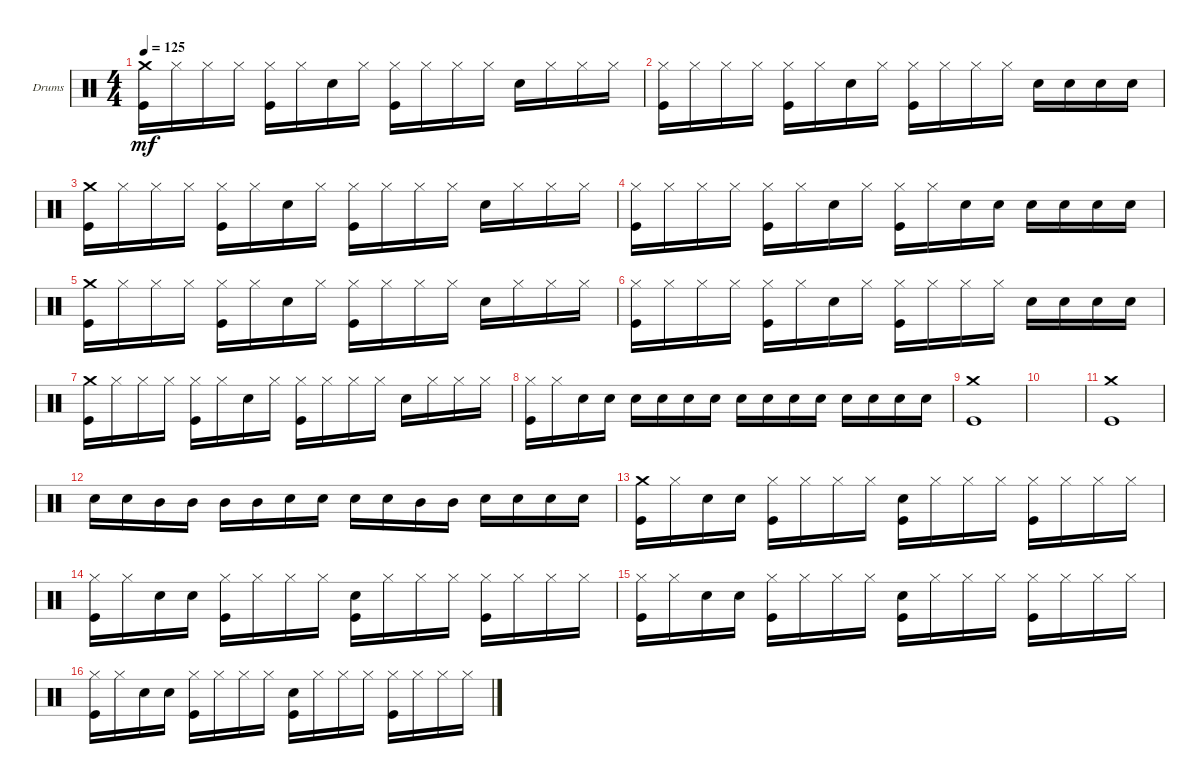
\defaultSystemsLayout 4
\bracketExtendMode groupsimilarinstruments
\firstSystemTrackNameOrientation horizontal
\otherSystemsTrackNameOrientation horizontal
\track ("Drumkit" "Drums") {instrument percussion}
\staff {score}
\articulation defaults
\ts (4 4)
\tempo 125
\clef neutral
\scale
0.333333
\ks c
("Kick (hit)" "Crash medium (hit)").16{dy mf} "Hi-Hat (closed)".16 "Hi-Hat (closed)".16 "Hi-Hat (closed)".16 ("Kick (hit)" "Hi-Hat (closed)").16 "Hi-Hat (closed)".16 "Snare (hit) 2".16 "Hi-Hat (closed)".16 ("Hi-Hat (closed)" "Kick (hit)").16 "Hi-Hat (closed)".16 "Hi-Hat (closed)".16 "Hi-Hat (closed)".16 "Snare (hit) 2".16 "Hi-Hat (closed)".16 "Hi-Hat (closed)".16 "Hi-Hat (closed)".16 |
\scale
0.333333 ("Kick (hit)" "Hi-Hat (closed)").16 "Hi-Hat (closed)".16 "Hi-Hat (closed)".16 "Hi-Hat (closed)".16 ("Kick (hit)" "Hi-Hat (closed)").16 "Hi-Hat (closed)".16 "Snare (hit) 2".16 "Hi-Hat (closed)".16 ("Hi-Hat (closed)" "Kick (hit)").16 "Hi-Hat (closed)".16 "Hi-Hat (closed)".16 "Hi-Hat (closed)".16 "Snare (hit) 2".16 "Snare (hit) 2".16 "Snare (hit) 2".16 "Snare (hit) 2".16 |
\scale
0.333333 ("Kick (hit)" "Crash medium (hit)").16 "Hi-Hat (closed)".16 "Hi-Hat (closed)".16 "Hi-Hat (closed)".16 ("Kick (hit)" "Hi-Hat (closed)").16 "Hi-Hat (closed)".16 "Snare (hit) 2".16 "Hi-Hat (closed)".16 ("Hi-Hat (closed)" "Kick (hit)").16 "Hi-Hat (closed)".16 "Hi-Hat (closed)".16 "Hi-Hat (closed)".16 "Snare (hit) 2".16 "Hi-Hat (closed)".16 "Hi-Hat (closed)".16 "Hi-Hat (closed)".16 |
\scale
0.333333 ("Kick (hit)" "Hi-Hat (closed)").16 "Hi-Hat (closed)".16 "Hi-Hat (closed)".16 "Hi-Hat (closed)".16 ("Kick (hit)" "Hi-Hat (closed)").16 "Hi-Hat (closed)".16 "Snare (hit) 2".16 "Hi-Hat (closed)".16 ("Hi-Hat (closed)" "Kick (hit)").16 "Hi-Hat (closed)".16 "Snare (hit) 2".16 "Snare (hit) 2".16 "Snare (hit) 2".16 "Snare (hit) 2".16 "Snare (hit) 2".16 "Snare (hit) 2".16 |
\scale
0.333333 ("Kick (hit)" "Crash medium (hit)").16 "Hi-Hat (closed)".16 "Hi-Hat (closed)".16 "Hi-Hat (closed)".16 ("Kick (hit)" "Hi-Hat (closed)").16 "Hi-Hat (closed)".16 "Snare (hit) 2".16 "Hi-Hat (closed)".16 ("Hi-Hat (closed)" "Kick (hit)").16 "Hi-Hat (closed)".16 "Hi-Hat (closed)".16 "Hi-Hat (closed)".16 "Snare (hit) 2".16 "Hi-Hat (closed)".16 "Hi-Hat (closed)".16 "Hi-Hat (closed)".16 |
\scale
0.333333 ("Kick (hit)" "Hi-Hat (closed)").16 "Hi-Hat (closed)".16 "Hi-Hat (closed)".16 "Hi-Hat (closed)".16 ("Kick (hit)" "Hi-Hat (closed)").16 "Hi-Hat (closed)".16 "Snare (hit) 2".16 "Hi-Hat (closed)".16 ("Hi-Hat (closed)" "Kick (hit)").16 "Hi-Hat (closed)".16 "Hi-Hat (closed)".16 "Hi-Hat (closed)".16 "Snare (hit) 2".16 "Snare (hit) 2".16 "Snare (hit) 2".16 "Snare (hit) 2".16 |
\scale
0.333333 ("Kick (hit)" "Crash medium (hit)").16 "Hi-Hat (closed)".16 "Hi-Hat (closed)".16 "Hi-Hat (closed)".16 ("Kick (hit)" "Hi-Hat (closed)").16 "Hi-Hat (closed)".16 "Snare (hit) 2".16 "Hi-Hat (closed)".16 ("Hi-Hat (closed)" "Kick (hit)").16 "Hi-Hat (closed)".16 "Hi-Hat (closed)".16 "Hi-Hat (closed)".16 "Snare (hit) 2".16 "Hi-Hat (closed)".16 "Hi-Hat (closed)".16 "Hi-Hat (closed)".16 |
\scale
0.333333 ("Hi-Hat (closed)" "Kick (hit)").16 "Hi-Hat (closed)".16 "Snare (hit) 2".16 "Snare (hit) 2".16 "Snare (hit) 2".16 "Snare (hit) 2".16 "Snare (hit) 2".16 "Snare (hit) 2".16 "Snare (hit) 2".16 "Snare (hit) 2".16 "Snare (hit) 2".16 "Snare (hit) 2".16 "Snare (hit) 2".16 "Snare (hit) 2".16 "Snare (hit) 2".16 "Snare (hit) 2".16 |
\scale
0.333333 ("Crash medium (hit)" "Kick (hit)").1 |
\scale
0.333333 |
\scale
0.333333 ("Kick (hit)" "Crash medium (hit)").1 |
\scale
0.333333 "Snare (hit) 2".16 "Snare (hit) 2".16 "Mid Tom (hit)".16 "Mid Tom (hit)".16 "Mid Tom (hit)".16 "Mid Tom (hit)".16 "Snare (hit) 2".16 "Snare (hit) 2".16 "Snare (hit) 2".16 "Snare (hit) 2".16 "Mid Tom (hit)".16 "Mid Tom (hit)".16 "Snare (hit) 2".16 "Snare (hit) 2".16 "Snare (hit) 2".16 "Snare (hit) 2".16 |
\scale
0.333333 ("Kick (hit)" "Crash medium (hit)").16 "Hi-Hat (closed)".16 "Snare (hit) 2".16 "Snare (hit) 2".16 ("Kick (hit)" "Hi-Hat (closed)").16 "Hi-Hat (closed)".16 "Hi-Hat (closed)".16 "Hi-Hat (closed)".16 ("Kick (hit)" "Snare (hit) 2").16 "Hi-Hat (closed)".16 "Hi-Hat (closed)".16 "Hi-Hat (closed)".16 ("Hi-Hat (closed)" "Kick (hit)").16 "Hi-Hat (closed)".16 "Hi-Hat (closed)".16 "Hi-Hat (closed)".16 |
\scale
0.333333 ("Hi-Hat (closed)" "Kick (hit)").16 "Hi-Hat (closed)".16 "Snare (hit) 2".16 "Snare (hit) 2".16 ("Kick (hit)" "Hi-Hat (closed)").16 "Hi-Hat (closed)".16 "Hi-Hat (closed)".16 "Hi-Hat (closed)".16 ("Kick (hit)" "Snare (hit) 2").16 "Hi-Hat (closed)".16 "Hi-Hat (closed)".16 "Hi-Hat (closed)".16 ("Hi-Hat (closed)" "Kick (hit)").16 "Hi-Hat (closed)".16 "Hi-Hat (closed)".16 "Hi-Hat (closed)".16 |
\scale
0.333333 ("Hi-Hat (closed)" "Kick (hit)").16 "Hi-Hat (closed)".16 "Snare (hit) 2".16 "Snare (hit) 2".16 ("Kick (hit)" "Hi-Hat (closed)").16 "Hi-Hat (closed)".16 "Hi-Hat (closed)".16 "Hi-Hat (closed)".16 ("Kick (hit)" "Snare (hit) 2").16 "Hi-Hat (closed)".16 "Hi-Hat (closed)".16 "Hi-Hat (closed)".16 ("Hi-Hat (closed)" "Kick (hit)").16 "Hi-Hat (closed)".16 "Hi-Hat (closed)".16 "Hi-Hat (closed)".16 |
\scale
0.333333 ("Hi-Hat (closed)" "Kick (hit)").16 "Hi-Hat (closed)".16 "Snare (hit) 2".16 "Snare (hit) 2".16 ("Kick (hit)" "Hi-Hat (closed)").16 "Hi-Hat (closed)".16 "Hi-Hat (closed)".16 "Hi-Hat (closed)".16 ("Kick (hit)" "Snare (hit) 2").16 "Hi-Hat (closed)".16 "Hi-Hat (closed)".16 "Hi-Hat (closed)".16 ("Hi-Hat (closed)" "Kick (hit)").16 "Hi-Hat (closed)".16 "Hi-Hat (closed)".16 "Hi-Hat (closed)".16
